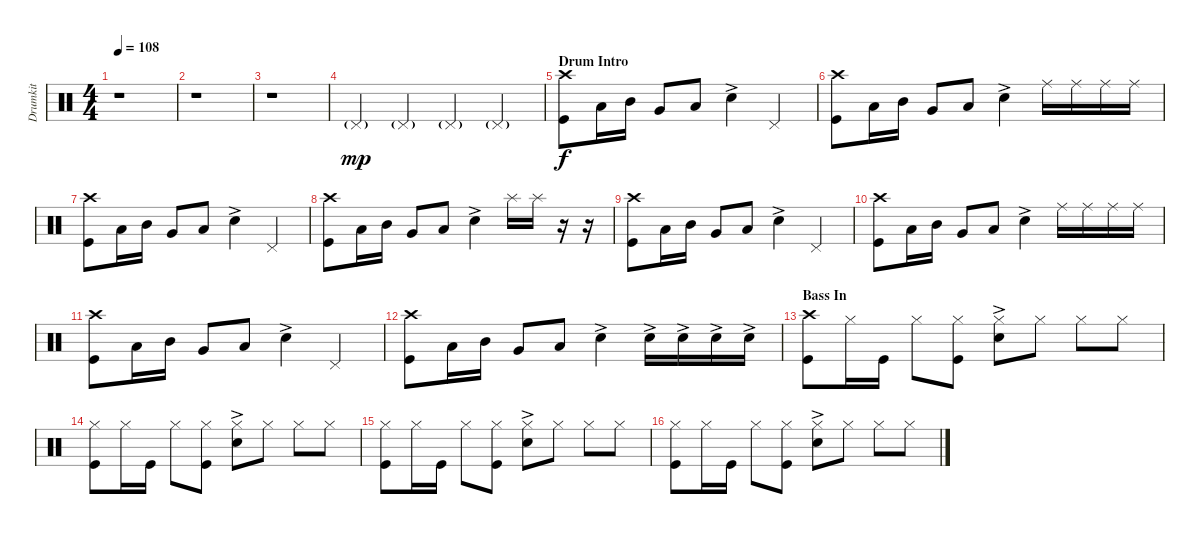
\track ("Drumkit" "Drumkit") {instrument percussion}
\staff {score}
\articulation defaults
\ts (4 4)
\tempo 108
\clef neutral
\ks c
r.1{dy mp} |
r.1 |
r.1 |
"Pedal Hi-Hat (hit)"{g}.4 "Pedal Hi-Hat (hit)"{g}.4 "Pedal Hi-Hat (hit)"{g}.4 "Pedal Hi-Hat (hit)"{g}.4 |
\section ("" "Drum Intro")
("Kick (hit)" "Crash high (hit)").8{dy f} "Low Tom (hit)".16 "Mid Tom (hit)".16 "Very Low Tom (hit)".8 "Low Floor Tom (hit)".8 "Snare (hit) 2"{ac}.4 "Pedal Hi-Hat (hit)".4 |
("Kick (hit)" "Crash high (hit)").8 "Low Tom (hit)".16 "Mid Tom (hit)".16 "Very Low Tom (hit)".8 "Low Floor Tom (hit)".8 "Snare (hit) 2"{ac}.4 "Ride (middle)".16 "Ride (middle)".16 "Ride (middle)".16 "Ride (middle)".16 |
("Kick (hit)" "Crash high (hit)").8 "Low Tom (hit)".16 "Mid Tom (hit)".16 "Very Low Tom (hit)".8 "Low Floor Tom (hit)".8 "Snare (hit) 2"{ac}.4 "Pedal Hi-Hat (hit)".4 |
("Kick (hit)" "Crash high (hit)").8 "Low Tom (hit)".16 "Mid Tom (hit)".16 "Very Low Tom (hit)".8 "Low Floor Tom (hit)".8 "Snare (hit) 2"{ac}.4 "Splash (hit)".16 "Splash (hit)".16 r.16 r.16 |
("Kick (hit)" "Crash high (hit)").8 "Low Tom (hit)".16 "Mid Tom (hit)".16 "Very Low Tom (hit)".8 "Low Floor Tom (hit)".8 "Snare (hit) 2"{ac}.4 "Pedal Hi-Hat (hit)".4 |
("Kick (hit)" "Crash high (hit)").8 "Low Tom (hit)".16 "Mid Tom (hit)".16 "Very Low Tom (hit)".8 "Low Floor Tom (hit)".8 "Snare (hit) 2"{ac}.4 "Ride (middle)".16 "Ride (middle)".16 "Ride (middle)".16 "Ride (middle)".16 |
("Kick (hit)" "Crash high (hit)").8 "Low Tom (hit)".16 "Mid Tom (hit)".16 "Very Low Tom (hit)".8 "Low Floor Tom (hit)".8 "Snare (hit) 2"{ac}.4 "Pedal Hi-Hat (hit)".4 |
("Kick (hit)" "Crash high (hit)").8 "Low Tom (hit)".16 "Mid Tom (hit)".16 "Very Low Tom (hit)".8 "Low Floor Tom (hit)".8 "Snare (hit) 2"{ac}.4 "Snare (hit) 2"{ac}.16 "Snare (hit) 2"{ac}.16 "Snare (hit) 2"{ac}.16 "Snare (hit) 2"{ac}.16 |
\section ("" "Bass In")
("Kick (hit)" "Crash high (hit)").8 "Hi-Hat (closed)".16 "Kick (hit)".16 "Hi-Hat (closed)".8 ("Kick (hit)" "Hi-Hat (closed)").8 ("Hi-Hat (closed)" "Snare (hit) 2"{ac}).8 "Hi-Hat (closed)".8 "Hi-Hat (closed)".8 "Hi-Hat (closed)".8 |
("Hi-Hat (closed)" "Kick (hit)").8 "Hi-Hat (closed)".16 "Kick (hit)".16 "Hi-Hat (closed)".8 ("Kick (hit)" "Hi-Hat (closed)").8 ("Hi-Hat (closed)" "Snare (hit) 2"{ac}).8 "Hi-Hat (closed)".8 "Hi-Hat (closed)".8 "Hi-Hat (closed)".8 |
("Hi-Hat (closed)" "Kick (hit)").8 "Hi-Hat (closed)".16 "Kick (hit)".16 "Hi-Hat (closed)".8 ("Kick (hit)" "Hi-Hat (closed)").8 ("Hi-Hat (closed)" "Snare (hit) 2"{ac}).8 "Hi-Hat (closed)".8 "Hi-Hat (closed)".8 "Hi-Hat (closed)".8 |
("Hi-Hat (closed)" "Kick (hit)").8 "Hi-Hat (closed)".16 "Kick (hit)".16 "Hi-Hat (closed)".8 ("Kick (hit)" "Hi-Hat (closed)").8 ("Hi-Hat (closed)" "Snare (hit) 2"{ac}).8 "Hi-Hat (closed)".8 "Hi-Hat (closed)".8 "Hi-Hat (closed)".8
